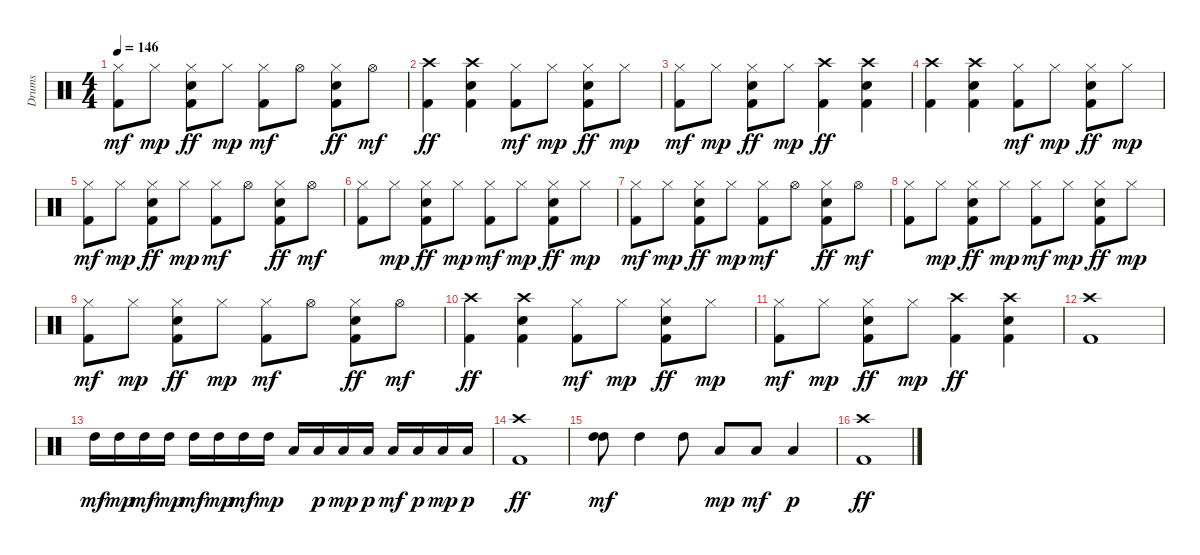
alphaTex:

\track ("Drums" "Drums") {instrument percussion}
\staff {score}
\articulation defaults
\ts (4 4)
\tempo 146
\clef neutral
\ks c
("Kick (hit) 2" "Hi-Hat (closed)").8{dy mf} "Hi-Hat (closed)".8{dy mp} ("Kick (hit) 2" "Snare (hit) 2" "Hi-Hat (closed)").8{dy ff} "Hi-Hat (closed)".8{dy mp} ("Kick (hit) 2" "Hi-Hat (closed)").8{dy mf} "Hi-Hat (open)".8 ("Kick (hit) 2" "Snare (hit) 2" "Hi-Hat (closed)").8{dy ff} "Hi-Hat (open)".8{dy mf} |
("Kick (hit) 2" "Crash high (hit)").4{dy ff} ("Kick (hit) 2" "Snare (hit) 2" "Crash high (hit)").4 ("Kick (hit) 2" "Hi-Hat (closed)").8{dy mf} "Hi-Hat (closed)".8{dy mp} ("Kick (hit) 2" "Snare (hit) 2" "Hi-Hat (closed)").8{dy ff} "Hi-Hat (closed)".8{dy mp} |
("Kick (hit) 2" "Hi-Hat (closed)").8{dy mf} "Hi-Hat (closed)".8{dy mp} ("Kick (hit) 2" "Snare (hit) 2" "Hi-Hat (closed)").8{dy ff} "Hi-Hat (closed)".8{dy mp} ("Kick (hit) 2" "Crash high (hit)").4{dy ff} ("Kick (hit) 2" "Snare (hit) 2" "Crash high (hit)").4 |
("Kick (hit) 2" "Crash high (hit)").4 ("Kick (hit) 2" "Snare (hit) 2" "Crash high (hit)").4 ("Kick (hit) 2" "Hi-Hat (closed)").8{dy mf} "Hi-Hat (closed)".8{dy mp} ("Kick (hit) 2" "Snare (hit) 2" "Hi-Hat (closed)").8{dy ff} "Hi-Hat (closed)".8{dy mp} |
("Kick (hit) 2" "Hi-Hat (closed)").8{dy mf} "Hi-Hat (closed)".8{dy mp} ("Kick (hit) 2" "Snare (hit) 2" "Hi-Hat (closed)").8{dy ff} "Hi-Hat (closed)".8{dy mp} ("Kick (hit) 2" "Hi-Hat (closed)").8{dy mf} "Hi-Hat (open)".8 ("Kick (hit) 2" "Snare (hit) 2" "Hi-Hat (closed)").8{dy ff} "Hi-Hat (open)".8{dy mf} |
("Kick (hit) 2" "Hi-Hat (closed)").8 "Hi-Hat (closed)".8{dy mp} ("Kick (hit) 2" "Snare (hit) 2" "Hi-Hat (closed)").8{dy ff} "Hi-Hat (closed)".8{dy mp} ("Kick (hit) 2" "Hi-Hat (closed)").8{dy mf} "Hi-Hat (closed)".8{dy mp} ("Kick (hit) 2" "Snare (hit) 2" "Hi-Hat (closed)").8{dy ff} "Hi-Hat (closed)".8{dy mp} |
("Kick (hit) 2" "Hi-Hat (closed)").8{dy mf} "Hi-Hat (closed)".8{dy mp} ("Kick (hit) 2" "Snare (hit) 2" "Hi-Hat (closed)").8{dy ff} "Hi-Hat (closed)".8{dy mp} ("Kick (hit) 2" "Hi-Hat (closed)").8{dy mf} "Hi-Hat (open)".8 ("Kick (hit) 2" "Snare (hit) 2" "Hi-Hat (closed)").8{dy ff} "Hi-Hat (open)".8{dy mf} |
("Kick (hit) 2" "Hi-Hat (closed)").8 "Hi-Hat (closed)".8{dy mp} ("Kick (hit) 2" "Snare (hit) 2" "Hi-Hat (closed)").8{dy ff} "Hi-Hat (closed)".8{dy mp} ("Kick (hit) 2" "Hi-Hat (closed)").8{dy mf} "Hi-Hat (closed)".8{dy mp} ("Kick (hit) 2" "Snare (hit) 2" "Hi-Hat (closed)").8{dy ff} "Hi-Hat (closed)".8{dy mp} |
("Kick (hit) 2" "Hi-Hat (closed)").8{dy mf} "Hi-Hat (closed)".8{dy mp} ("Kick (hit) 2" "Snare (hit) 2" "Hi-Hat (closed)").8{dy ff} "Hi-Hat (closed)".8{dy mp} ("Kick (hit) 2" "Hi-Hat (closed)").8{dy mf} "Hi-Hat (open)".8 ("Kick (hit) 2" "Snare (hit) 2" "Hi-Hat (closed)").8{dy ff} "Hi-Hat (open)".8{dy mf} |
("Kick (hit) 2" "Crash high (hit)").4{dy ff} ("Kick (hit) 2" "Snare (hit) 2" "Crash high (hit)").4 ("Kick (hit) 2" "Hi-Hat (closed)").8{dy mf} "Hi-Hat (closed)".8{dy mp} ("Kick (hit) 2" "Snare (hit) 2" "Hi-Hat (closed)").8{dy ff} "Hi-Hat (closed)".8{dy mp} |
("Kick (hit) 2" "Hi-Hat (closed)").8{dy mf} "Hi-Hat (closed)".8{dy mp} ("Kick (hit) 2" "Snare (hit) 2" "Hi-Hat (closed)").8{dy ff} "Hi-Hat (closed)".8{dy mp} ("Kick (hit) 2" "Crash high (hit)").4{dy ff} ("Kick (hit) 2" "Snare (hit) 2" "Crash high (hit)").4 |
("Kick (hit) 2" "Crash high (hit)").1 |
"High Tom (hit)".16{dy mf} "High Tom (hit)".16{dy mp} "High Tom (hit)".16{dy mf} "High Tom (hit)".16{dy mp} "High Tom (hit)".16{dy mf balance 6} "High Tom (hit)".16{dy mp} "High Tom (hit)".16{dy mf} "High Tom (hit)".16{dy mp} "Low Tom (hit)".16{balance 8} "Low Tom (hit)".16{dy p} "Low Tom (hit)".16{dy mp} "Low Tom (hit)".16{dy p} "Low Floor Tom (hit)".16{dy mf} "Low Floor Tom (hit)".16{dy p} "Low Floor Tom (hit)".16{dy mp} "Low Floor Tom (hit)".16{dy p} |
("Kick (hit) 2" "Crash high (hit)").1{dy ff} |
("High Tom (hit)" "High Tom (hit)").8{dy mf} "High Tom (hit)".4{balance 6} "High Tom (hit)".8 "Low Tom (hit)".8{dy mp balance 8} "Low Floor Tom (hit)".8{dy mf} "Low Floor Tom (hit)".4{dy p} |
("Kick (hit) 2" "Crash high (hit)").1{dy ff}
